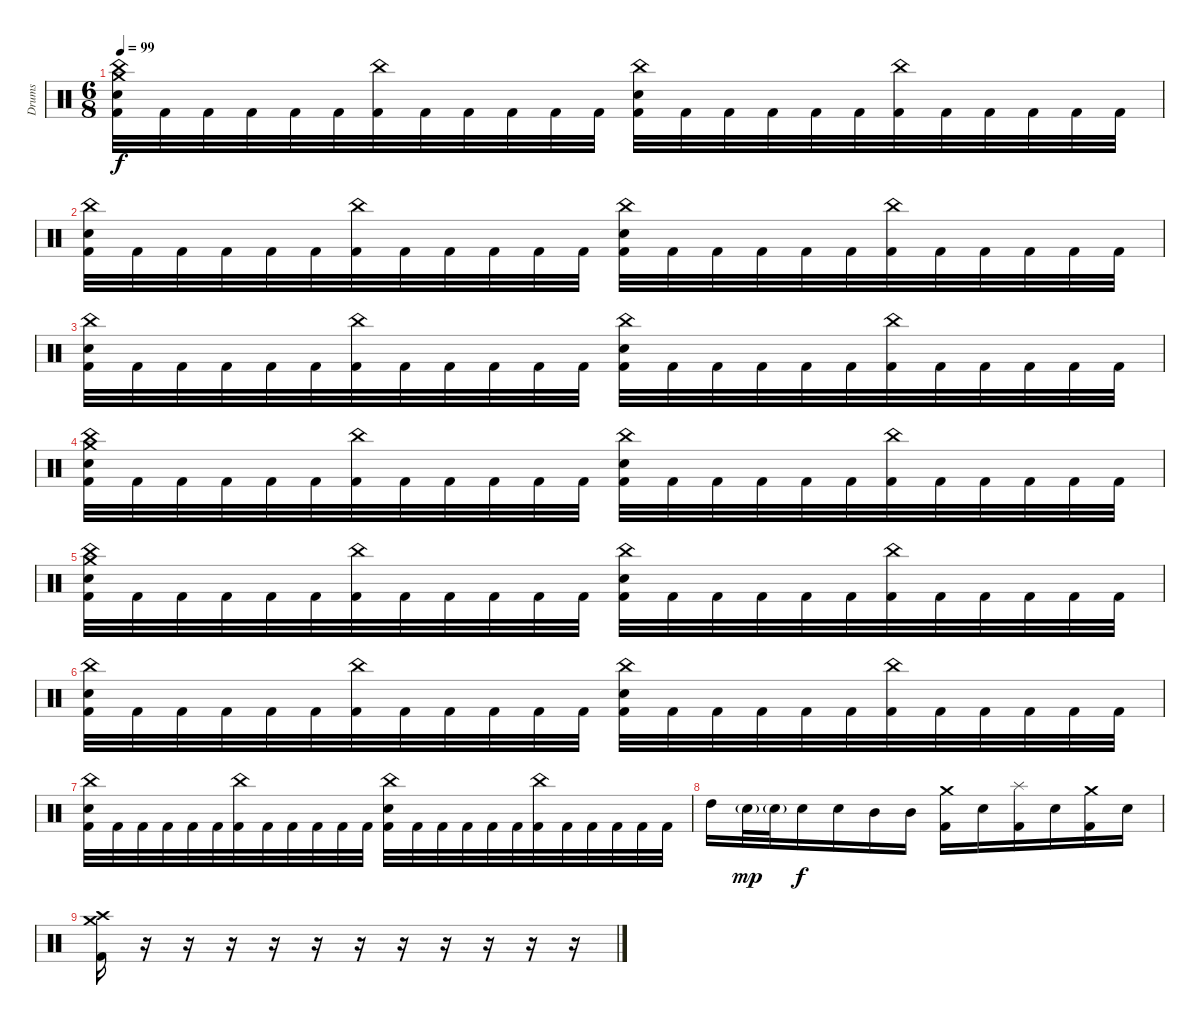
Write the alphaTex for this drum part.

\track ("Drums" "Drums") {instrument percussion}
\staff {score}
\articulation defaults
\ts (6 8)
\tempo 99
\clef neutral
\ks c
("Crash medium (hit)" "China (hit)" "Electric Snare (hit)" "Kick (hit) 2").32{dy f} "Kick (hit) 2".32 "Kick (hit) 2".32 "Kick (hit) 2".32 "Kick (hit) 2".32 "Kick (hit) 2".32 ("China (hit)" "Kick (hit) 2").32 "Kick (hit) 2".32 "Kick (hit) 2".32 "Kick (hit) 2".32 "Kick (hit) 2".32 "Kick (hit) 2".32 ("China (hit)" "Electric Snare (hit)" "Kick (hit) 2").32 "Kick (hit) 2".32 "Kick (hit) 2".32 "Kick (hit) 2".32 "Kick (hit) 2".32 "Kick (hit) 2".32 ("China (hit)" "Kick (hit) 2").32 "Kick (hit) 2".32 "Kick (hit) 2".32 "Kick (hit) 2".32 "Kick (hit) 2".32 "Kick (hit) 2".32 |
("China (hit)" "Electric Snare (hit)" "Kick (hit) 2").32 "Kick (hit) 2".32 "Kick (hit) 2".32 "Kick (hit) 2".32 "Kick (hit) 2".32 "Kick (hit) 2".32 ("China (hit)" "Kick (hit) 2").32 "Kick (hit) 2".32 "Kick (hit) 2".32 "Kick (hit) 2".32 "Kick (hit) 2".32 "Kick (hit) 2".32 ("China (hit)" "Electric Snare (hit)" "Kick (hit) 2").32 "Kick (hit) 2".32 "Kick (hit) 2".32 "Kick (hit) 2".32 "Kick (hit) 2".32 "Kick (hit) 2".32 ("China (hit)" "Kick (hit) 2").32 "Kick (hit) 2".32 "Kick (hit) 2".32 "Kick (hit) 2".32 "Kick (hit) 2".32 "Kick (hit) 2".32 |
("China (hit)" "Electric Snare (hit)" "Kick (hit) 2").32 "Kick (hit) 2".32 "Kick (hit) 2".32 "Kick (hit) 2".32 "Kick (hit) 2".32 "Kick (hit) 2".32 ("China (hit)" "Kick (hit) 2").32 "Kick (hit) 2".32 "Kick (hit) 2".32 "Kick (hit) 2".32 "Kick (hit) 2".32 "Kick (hit) 2".32 ("China (hit)" "Electric Snare (hit)" "Kick (hit) 2").32 "Kick (hit) 2".32 "Kick (hit) 2".32 "Kick (hit) 2".32 "Kick (hit) 2".32 "Kick (hit) 2".32 ("China (hit)" "Kick (hit) 2").32 "Kick (hit) 2".32 "Kick (hit) 2".32 "Kick (hit) 2".32 "Kick (hit) 2".32 "Kick (hit) 2".32 |
("Crash medium (hit)" "China (hit)" "Electric Snare (hit)" "Kick (hit) 2").32 "Kick (hit) 2".32 "Kick (hit) 2".32 "Kick (hit) 2".32 "Kick (hit) 2".32 "Kick (hit) 2".32 ("China (hit)" "Kick (hit) 2").32 "Kick (hit) 2".32 "Kick (hit) 2".32 "Kick (hit) 2".32 "Kick (hit) 2".32 "Kick (hit) 2".32 ("China (hit)" "Electric Snare (hit)" "Kick (hit) 2").32 "Kick (hit) 2".32 "Kick (hit) 2".32 "Kick (hit) 2".32 "Kick (hit) 2".32 "Kick (hit) 2".32 ("China (hit)" "Kick (hit) 2").32 "Kick (hit) 2".32 "Kick (hit) 2".32 "Kick (hit) 2".32 "Kick (hit) 2".32 "Kick (hit) 2".32 |
("Crash medium (hit)" "China (hit)" "Electric Snare (hit)" "Kick (hit) 2").32 "Kick (hit) 2".32 "Kick (hit) 2".32 "Kick (hit) 2".32 "Kick (hit) 2".32 "Kick (hit) 2".32 ("China (hit)" "Kick (hit) 2").32 "Kick (hit) 2".32 "Kick (hit) 2".32 "Kick (hit) 2".32 "Kick (hit) 2".32 "Kick (hit) 2".32 ("China (hit)" "Electric Snare (hit)" "Kick (hit) 2").32 "Kick (hit) 2".32 "Kick (hit) 2".32 "Kick (hit) 2".32 "Kick (hit) 2".32 "Kick (hit) 2".32 ("China (hit)" "Kick (hit) 2").32 "Kick (hit) 2".32 "Kick (hit) 2".32 "Kick (hit) 2".32 "Kick (hit) 2".32 "Kick (hit) 2".32 |
("China (hit)" "Electric Snare (hit)" "Kick (hit) 2").32 "Kick (hit) 2".32 "Kick (hit) 2".32 "Kick (hit) 2".32 "Kick (hit) 2".32 "Kick (hit) 2".32 ("China (hit)" "Kick (hit) 2").32 "Kick (hit) 2".32 "Kick (hit) 2".32 "Kick (hit) 2".32 "Kick (hit) 2".32 "Kick (hit) 2".32 ("China (hit)" "Electric Snare (hit)" "Kick (hit) 2").32 "Kick (hit) 2".32 "Kick (hit) 2".32 "Kick (hit) 2".32 "Kick (hit) 2".32 "Kick (hit) 2".32 ("China (hit)" "Kick (hit) 2").32 "Kick (hit) 2".32 "Kick (hit) 2".32 "Kick (hit) 2".32 "Kick (hit) 2".32 "Kick (hit) 2".32 |
("China (hit)" "Electric Snare (hit)" "Kick (hit) 2").32 "Kick (hit) 2".32 "Kick (hit) 2".32 "Kick (hit) 2".32 "Kick (hit) 2".32 "Kick (hit) 2".32 ("China (hit)" "Kick (hit) 2").32 "Kick (hit) 2".32 "Kick (hit) 2".32 "Kick (hit) 2".32 "Kick (hit) 2".32 "Kick (hit) 2".32 ("China (hit)" "Electric Snare (hit)" "Kick (hit) 2").32 "Kick (hit) 2".32 "Kick (hit) 2".32 "Kick (hit) 2".32 "Kick (hit) 2".32 "Kick (hit) 2".32 ("China (hit)" "Kick (hit) 2").32 "Kick (hit) 2".32 "Kick (hit) 2".32 "Kick (hit) 2".32 "Kick (hit) 2".32 "Kick (hit) 2".32 |
"High Tom (hit)".16 "Electric Snare (hit)"{g}.32{dy mp} "Electric Snare (hit)"{g}.32 "Electric Snare (hit)".16{dy f} "Electric Snare (hit)".16 "Mid Tom (hit)".16 "Mid Tom (hit)".16 ("Crash medium (hit)" "Kick (hit) 2").16 "Electric Snare (hit)".16 ("Splash (hit)" "Kick (hit) 2").16 "Electric Snare (hit)".16 ("Crash medium (hit)" "Kick (hit) 2").16 "Electric Snare (hit)".16 |
("Crash medium (hit)" "Crash high (hit)" "Kick (hit) 2").16 r.16 r.16 r.16 r.16 r.16 r.16 r.16 r.16 r.16 r.16 r.16
